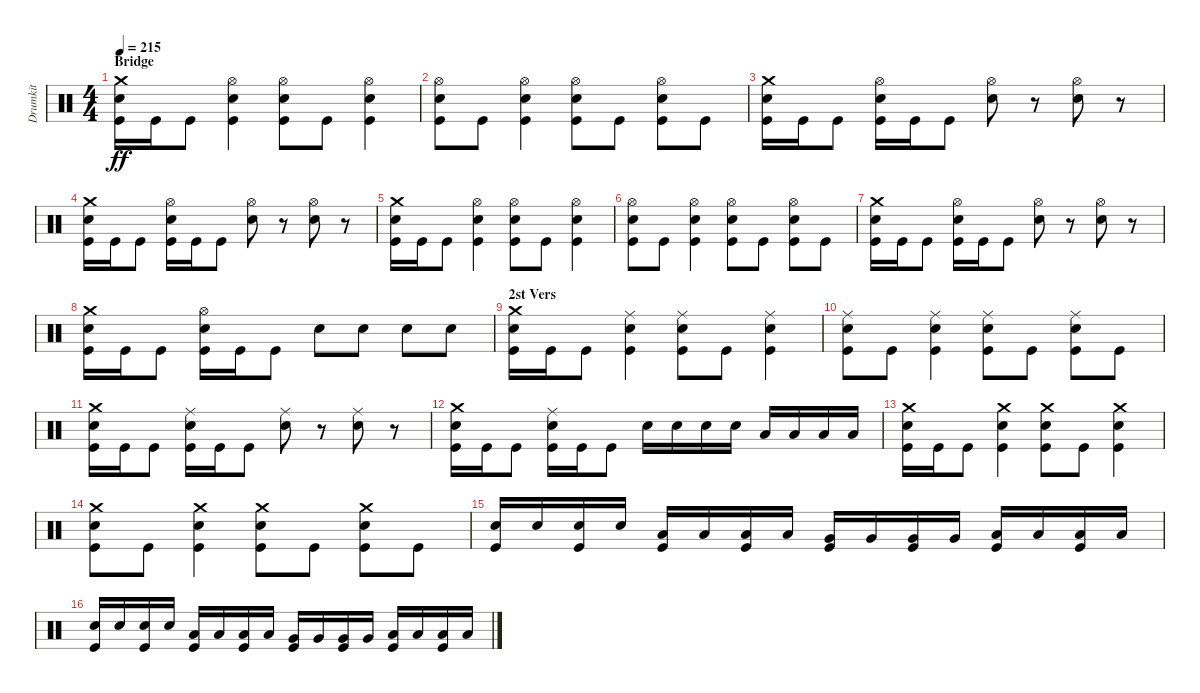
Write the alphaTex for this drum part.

\track ("Drumkit" "Drumkit") {instrument percussion}
\staff {score}
\articulation defaults
\ts (4 4)
\section ("" "Bridge")
\tempo 215
\clef neutral
\ks c
("Kick (hit)" "Snare (hit) 2" "Crash medium (hit)").16{dy ff} "Kick (hit)".16 "Kick (hit)".8 ("Kick (hit)" "Hi-Hat (open)" "Snare (hit) 2").4 ("Kick (hit)" "Hi-Hat (open)" "Snare (hit) 2").8 "Kick (hit)".8 ("Kick (hit)" "Hi-Hat (open)" "Snare (hit) 2").4 |
("Kick (hit)" "Hi-Hat (open)" "Snare (hit) 2").8 "Kick (hit)".8 ("Kick (hit)" "Hi-Hat (open)" "Snare (hit) 2").4 ("Kick (hit)" "Hi-Hat (open)" "Snare (hit) 2").8 "Kick (hit)".8 ("Kick (hit)" "Hi-Hat (open)" "Snare (hit) 2").8 "Kick (hit)".8 |
("Kick (hit)" "Snare (hit) 2" "Crash medium (hit)").16 "Kick (hit)".16 "Kick (hit)".8 ("Kick (hit)" "Hi-Hat (open)" "Snare (hit) 2").16 "Kick (hit)".16 "Kick (hit)".8 ("Hi-Hat (open)" "Snare (hit) 2").8 r.8 ("Hi-Hat (open)" "Snare (hit) 2").8 r.8 |
("Kick (hit)" "Snare (hit) 2" "Crash medium (hit)").16 "Kick (hit)".16 "Kick (hit)".8 ("Kick (hit)" "Hi-Hat (open)" "Snare (hit) 2").16 "Kick (hit)".16 "Kick (hit)".8 ("Hi-Hat (open)" "Snare (hit) 2").8 r.8 ("Hi-Hat (open)" "Snare (hit) 2").8 r.8 |
("Kick (hit)" "Snare (hit) 2" "Crash medium (hit)").16 "Kick (hit)".16 "Kick (hit)".8 ("Kick (hit)" "Hi-Hat (open)" "Snare (hit) 2").4 ("Kick (hit)" "Hi-Hat (open)" "Snare (hit) 2").8 "Kick (hit)".8 ("Kick (hit)" "Hi-Hat (open)" "Snare (hit) 2").4 |
("Kick (hit)" "Hi-Hat (open)" "Snare (hit) 2").8 "Kick (hit)".8 ("Kick (hit)" "Hi-Hat (open)" "Snare (hit) 2").4 ("Kick (hit)" "Hi-Hat (open)" "Snare (hit) 2").8 "Kick (hit)".8 ("Kick (hit)" "Hi-Hat (open)" "Snare (hit) 2").8 "Kick (hit)".8 |
("Kick (hit)" "Snare (hit) 2" "Crash medium (hit)").16 "Kick (hit)".16 "Kick (hit)".8 ("Kick (hit)" "Hi-Hat (open)" "Snare (hit) 2").16 "Kick (hit)".16 "Kick (hit)".8 ("Hi-Hat (open)" "Snare (hit) 2").8 r.8 ("Hi-Hat (open)" "Snare (hit) 2").8 r.8 |
("Kick (hit)" "Snare (hit) 2" "Crash medium (hit)").16 "Kick (hit)".16 "Kick (hit)".8 ("Kick (hit)" "Hi-Hat (open)" "Snare (hit) 2").16 "Kick (hit)".16 "Kick (hit)".8 "Snare (hit) 2".8 "Snare (hit) 2".8 "Snare (hit) 2".8 "Snare (hit) 2".8 |
\section ("" "2st Vers")
("Kick (hit)" "Snare (hit) 2" "Crash medium (hit)").16 "Kick (hit)".16 "Kick (hit)".8 ("Kick (hit)" "Snare (hit) 2" "Ride (middle)").4 ("Kick (hit)" "Snare (hit) 2" "Ride (middle)").8 "Kick (hit)".8 ("Kick (hit)" "Snare (hit) 2" "Ride (middle)").4 |
("Kick (hit)" "Snare (hit) 2" "Ride (middle)").8 "Kick (hit)".8 ("Kick (hit)" "Snare (hit) 2" "Ride (middle)").4 ("Kick (hit)" "Snare (hit) 2" "Ride (middle)").8 "Kick (hit)".8 ("Kick (hit)" "Snare (hit) 2" "Ride (middle)").8 "Kick (hit)".8 |
("Kick (hit)" "Snare (hit) 2" "Crash medium (hit)").16 "Kick (hit)".16 "Kick (hit)".8 ("Kick (hit)" "Snare (hit) 2" "Ride (middle)").16 "Kick (hit)".16 "Kick (hit)".8 ("Snare (hit) 2" "Ride (middle)").8 r.8 ("Snare (hit) 2" "Ride (middle)").8 r.8 |
("Kick (hit)" "Snare (hit) 2" "Crash medium (hit)").16 "Kick (hit)".16 "Kick (hit)".8 ("Kick (hit)" "Snare (hit) 2" "Ride (middle)").16 "Kick (hit)".16 "Kick (hit)".8 "Snare (hit) 2".16 "Snare (hit) 2".16 "Snare (hit) 2".16 "Snare (hit) 2".16 "Low Floor Tom (hit)".16 "Low Floor Tom (hit)".16 "Low Floor Tom (hit)".16 "Low Floor Tom (hit)".16 |
("Kick (hit)" "Snare (hit) 2" "Crash medium (hit)").16 "Kick (hit)".16 "Kick (hit)".8 ("Kick (hit)" "Snare (hit) 2" "Crash medium (hit)").4 ("Kick (hit)" "Snare (hit) 2" "Crash medium (hit)").8 "Kick (hit)".8 ("Kick (hit)" "Snare (hit) 2" "Crash medium (hit)").4 |
("Kick (hit)" "Snare (hit) 2" "Crash medium (hit)").8 "Kick (hit)".8 ("Kick (hit)" "Snare (hit) 2" "Crash medium (hit)").4 ("Kick (hit)" "Snare (hit) 2" "Crash medium (hit)").8 "Kick (hit)".8 ("Kick (hit)" "Snare (hit) 2" "Crash medium (hit)").8 "Kick (hit)".8 |
("Snare (hit) 2" "Kick (hit)").16 "Snare (hit) 2".16 ("Snare (hit) 2" "Kick (hit)").16 "Snare (hit) 2".16 ("Low Tom (hit)" "Kick (hit)").16 "Low Tom (hit)".16 ("Low Tom (hit)" "Kick (hit)").16 "Low Tom (hit)".16 ("Very Low Tom (hit)" "Kick (hit)").16 "Very Low Tom (hit)".16 ("Very Low Tom (hit)" "Kick (hit)").16 "Very Low Tom (hit)".16 ("Low Floor Tom (hit)" "Kick (hit)").16 "Low Floor Tom (hit)".16 ("Low Floor Tom (hit)" "Kick (hit)").16 "Low Floor Tom (hit)".16 |
("Snare (hit) 2" "Kick (hit)").16 "Snare (hit) 2".16 ("Snare (hit) 2" "Kick (hit)").16 "Snare (hit) 2".16 ("Low Tom (hit)" "Kick (hit)").16 "Low Tom (hit)".16 ("Low Tom (hit)" "Kick (hit)").16 "Low Tom (hit)".16 ("Very Low Tom (hit)" "Kick (hit)").16 "Very Low Tom (hit)".16 ("Very Low Tom (hit)" "Kick (hit)").16 "Very Low Tom (hit)".16 ("Low Floor Tom (hit)" "Kick (hit)").16 "Low Floor Tom (hit)".16 ("Low Floor Tom (hit)" "Kick (hit)").16 "Low Floor Tom (hit)".16
